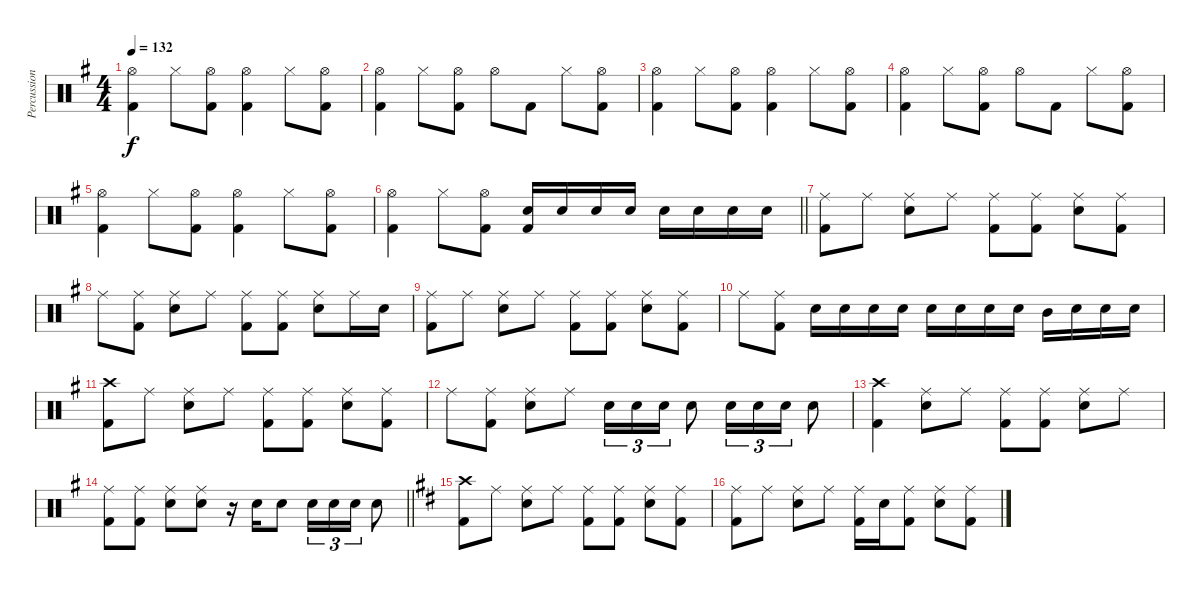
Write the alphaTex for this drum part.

\track ("Percussion" "Percussion") {instrument percussion}
\staff {score}
\articulation defaults
\ts (4 4)
\tempo 132
\clef neutral
\ks eminor
("Hi-Hat (open)" "Kick (hit) 2").4{dy f} "Hi-Hat (closed)".8 ("Hi-Hat (open)" "Kick (hit) 2").8 ("Hi-Hat (open)" "Kick (hit) 2").4 "Hi-Hat (closed)".8 ("Hi-Hat (open)" "Kick (hit) 2").8 |
("Hi-Hat (open)" "Kick (hit) 2").4 "Hi-Hat (closed)".8 ("Hi-Hat (open)" "Kick (hit) 2").8 "Hi-Hat (open)".8 "Kick (hit) 2".8 "Hi-Hat (closed)".8 ("Hi-Hat (open)" "Kick (hit) 2").8 |
("Hi-Hat (open)" "Kick (hit) 2").4 "Hi-Hat (closed)".8 ("Hi-Hat (open)" "Kick (hit) 2").8 ("Hi-Hat (open)" "Kick (hit) 2").4 "Hi-Hat (closed)".8 ("Hi-Hat (open)" "Kick (hit) 2").8 |
("Hi-Hat (open)" "Kick (hit) 2").4 "Hi-Hat (closed)".8 ("Hi-Hat (open)" "Kick (hit) 2").8 "Hi-Hat (open)".8 "Kick (hit) 2".8 "Hi-Hat (closed)".8 ("Hi-Hat (open)" "Kick (hit) 2").8 |
("Hi-Hat (open)" "Kick (hit) 2").4 "Hi-Hat (closed)".8 ("Hi-Hat (open)" "Kick (hit) 2").8 ("Hi-Hat (open)" "Kick (hit) 2").4 "Hi-Hat (closed)".8 ("Hi-Hat (open)" "Kick (hit) 2").8 |
\barLineRight lightlight
("Hi-Hat (open)" "Kick (hit) 2").4 "Hi-Hat (closed)".8 ("Hi-Hat (open)" "Kick (hit) 2").8 ("Snare (hit) 2" "Kick (hit) 2").16 "Snare (hit) 2".16 "Snare (hit) 2".16 "Snare (hit) 2".16 "Snare (hit) 2".16 "Snare (hit) 2".16 "Snare (hit) 2".16 "Snare (hit) 2".16 |
("Ride (middle)" "Kick (hit) 2").8 "Ride (middle)".8 ("Ride (middle)" "Snare (hit) 2").8 "Ride (middle)".8 ("Ride (middle)" "Kick (hit) 2").8 ("Ride (middle)" "Kick (hit) 2").8 ("Ride (middle)" "Snare (hit) 2").8 ("Ride (middle)" "Kick (hit) 2").8 |
"Ride (middle)".8 ("Ride (middle)" "Kick (hit) 2").8 ("Ride (middle)" "Snare (hit) 2").8 "Ride (middle)".8 ("Ride (middle)" "Kick (hit) 2").8 ("Ride (middle)" "Kick (hit) 2").8 ("Ride (middle)" "Snare (hit) 2").8 "Ride (middle)".16 "Snare (hit) 2".16 |
("Ride (middle)" "Kick (hit) 2").8 "Ride (middle)".8 ("Ride (middle)" "Snare (hit) 2").8 "Ride (middle)".8 ("Ride (middle)" "Kick (hit) 2").8 ("Ride (middle)" "Kick (hit) 2").8 ("Ride (middle)" "Snare (hit) 2").8 ("Ride (middle)" "Kick (hit) 2").8 |
"Ride (middle)".8 ("Ride (middle)" "Kick (hit) 2").8 "Snare (hit) 2".16 "Snare (hit) 2".16 "Snare (hit) 2".16 "Snare (hit) 2".16 "Snare (hit) 2".16 "Snare (hit) 2".16 "Snare (hit) 2".16 "Snare (hit) 2".16 "Mid Tom (hit)".16 "Snare (hit) 2".16 "Snare (hit) 2".16 "Snare (hit) 2".16 |
("Crash high (hit)" "Kick (hit) 2").8 "Ride (middle)".8 ("Ride (middle)" "Snare (hit) 2").8 "Ride (middle)".8 ("Ride (middle)" "Kick (hit) 2").8 ("Ride (middle)" "Kick (hit) 2").8 ("Ride (middle)" "Snare (hit) 2").8 ("Ride (middle)" "Kick (hit) 2").8 |
"Ride (middle)".8 ("Ride (middle)" "Kick (hit) 2").8 ("Ride (middle)" "Snare (hit) 2").8 "Ride (middle)".8 "Snare (hit) 2".16{tu (3 2)} "Snare (hit) 2".16{tu (3 2)} "Snare (hit) 2".16{tu (3 2)} "Snare (hit) 2".8 "Snare (hit) 2".16{tu (3 2)} "Snare (hit) 2".16{tu (3 2)} "Snare (hit) 2".16{tu (3 2)} "Snare (hit) 2".8 |
("Crash high (hit)" "Kick (hit) 2").4 ("Ride (middle)" "Snare (hit) 2").8 "Ride (middle)".8 ("Ride (middle)" "Kick (hit) 2").8 ("Ride (middle)" "Kick (hit) 2").8 ("Ride (middle)" "Snare (hit) 2").8 "Ride (middle)".8 |
\barLineRight lightlight
("Ride (middle)" "Kick (hit) 2").8 ("Ride (middle)" "Kick (hit) 2").8 ("Ride (middle)" "Snare (hit) 2").8 ("Ride (middle)" "Snare (hit) 2").8 r.16 "Snare (hit) 2".16 "Snare (hit) 2".8 "Snare (hit) 2".16{tu (3 2)} "Snare (hit) 2".16{tu (3 2)} "Snare (hit) 2".16{tu (3 2)} "Snare (hit) 2".8 |
\ks d
("Crash high (hit)" "Kick (hit) 2").8 "Ride (middle)".8 ("Ride (middle)" "Snare (hit) 2").8 "Ride (middle)".8 ("Ride (middle)" "Kick (hit) 2").8 ("Ride (middle)" "Kick (hit) 2").8 ("Ride (middle)" "Snare (hit) 2").8 ("Ride (middle)" "Kick (hit) 2").8 |
("Ride (middle)" "Kick (hit) 2").8 "Ride (middle)".8 ("Ride (middle)" "Snare (hit) 2").8 "Ride (middle)".8 ("Ride (middle)" "Kick (hit) 2").16 "Snare (hit) 2".16 ("Ride (middle)" "Kick (hit) 2").8 ("Ride (middle)" "Snare (hit) 2").8 ("Ride (middle)" "Kick (hit) 2").8
